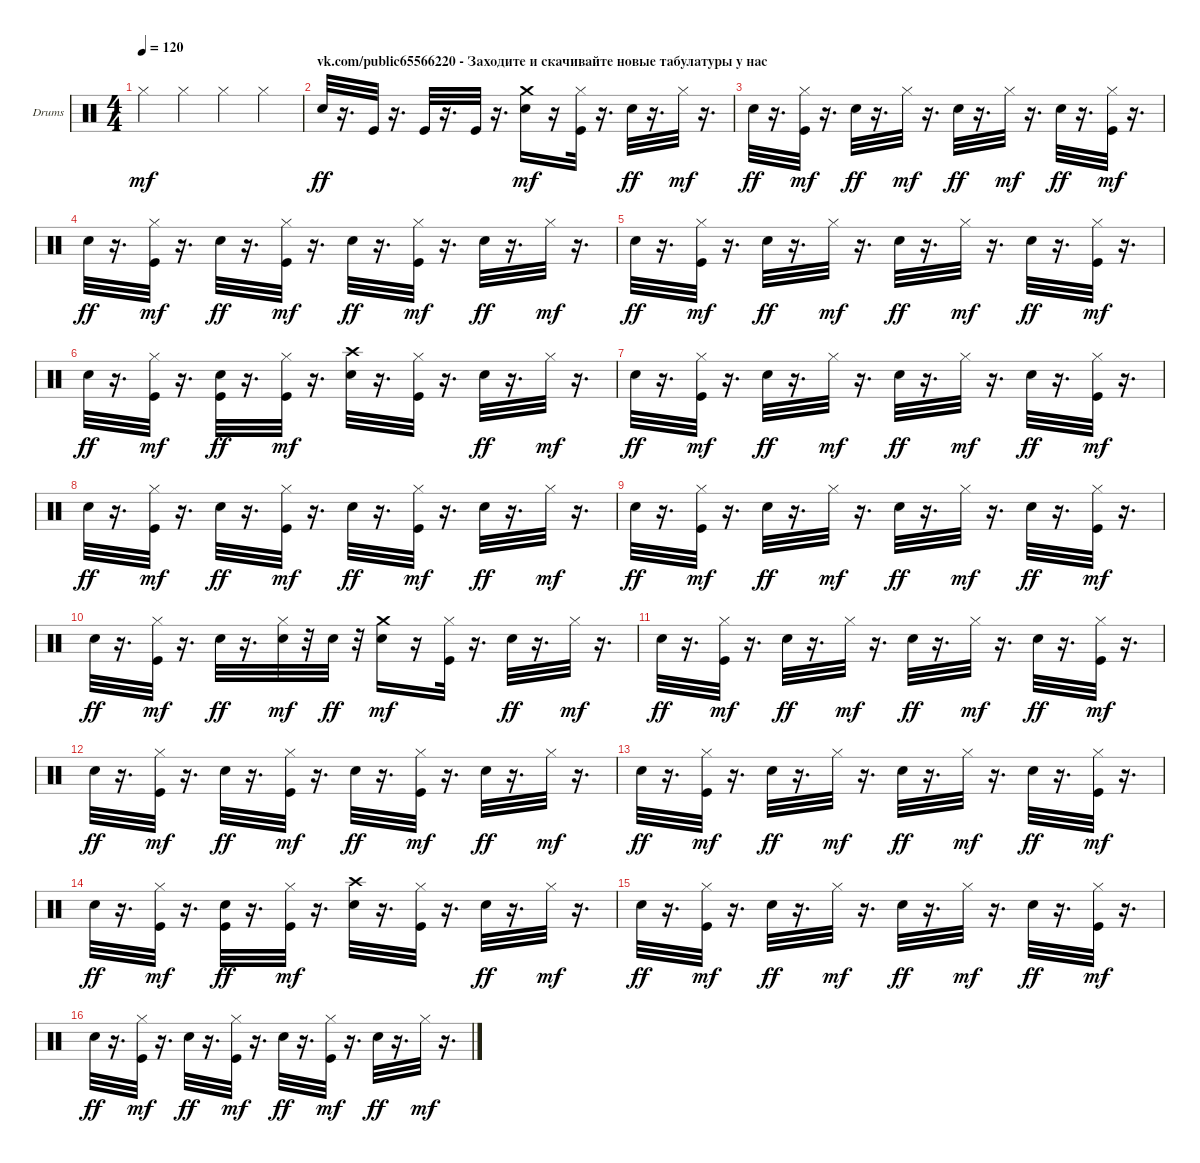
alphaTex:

\bracketExtendMode groupsimilarinstruments
\firstSystemTrackNameOrientation horizontal
\otherSystemsTrackNameOrientation horizontal
\track ("Ударные" "Drums") {instrument percussion}
\staff {score}
\articulation defaults
\ts (4 4)
\tempo 120
\clef neutral
\ks c "Hi-Hat (closed)".4{dy mf} "Hi-Hat (closed)".4 "Hi-Hat (closed)".4 "Hi-Hat (closed)".4
|
\section ("" "vk.com/public65566220 - Заходите и скачивайте новые табулатуры у нас")
"Snare (hit) 2".32{dy ff} r.16{d} "Kick (hit)".32 r.16{d} "Kick (hit)".32 r.16{d} "Kick (hit)".32 r.16{d} ("Crash medium (hit)" "Snare (hit) 2").16{dy mf} r.16 ("Hi-Hat (closed)" "Kick (hit)").32 r.16{d} "Snare (hit) 2".32{dy ff} r.16{d} "Hi-Hat (closed)".32{dy mf} r.16{d} |
"Snare (hit) 2".32{dy ff} r.16{d} ("Hi-Hat (closed)" "Kick (hit)").32{dy mf} r.16{d} "Snare (hit) 2".32{dy ff} r.16{d} "Hi-Hat (closed)".32{dy mf} r.16{d} "Snare (hit) 2".32{dy ff} r.16{d} "Hi-Hat (closed)".32{dy mf} r.16{d} "Snare (hit) 2".32{dy ff} r.16{d} ("Hi-Hat (closed)" "Kick (hit)").32{dy mf} r.16{d} |
"Snare (hit) 2".32{dy ff} r.16{d} ("Hi-Hat (closed)" "Kick (hit)").32{dy mf} r.16{d} "Snare (hit) 2".32{dy ff} r.16{d} ("Hi-Hat (closed)" "Kick (hit)").32{dy mf} r.16{d} "Snare (hit) 2".32{dy ff} r.16{d} ("Hi-Hat (closed)" "Kick (hit)").32{dy mf} r.16{d} "Snare (hit) 2".32{dy ff} r.16{d} "Hi-Hat (closed)".32{dy mf} r.16{d} |
"Snare (hit) 2".32{dy ff} r.16{d} ("Hi-Hat (closed)" "Kick (hit)").32{dy mf} r.16{d} "Snare (hit) 2".32{dy ff} r.16{d} "Hi-Hat (closed)".32{dy mf} r.16{d} "Snare (hit) 2".32{dy ff} r.16{d} "Hi-Hat (closed)".32{dy mf} r.16{d} "Snare (hit) 2".32{dy ff} r.16{d} ("Hi-Hat (closed)" "Kick (hit)").32{dy mf} r.16{d} |
"Snare (hit) 2".32{dy ff} r.16{d} ("Hi-Hat (closed)" "Kick (hit)").32{dy mf} r.16{d} ("Kick (hit)" "Snare (hit) 2").32{dy ff} r.16{d} ("Hi-Hat (closed)" "Kick (hit)").32{dy mf} r.16{d} ("Crash high (hit)" "Snare (hit) 2").32 r.16{d} ("Hi-Hat (closed)" "Kick (hit)").32 r.16{d} "Snare (hit) 2".32{dy ff} r.16{d} "Hi-Hat (closed)".32{dy mf} r.16{d} |
"Snare (hit) 2".32{dy ff} r.16{d} ("Hi-Hat (closed)" "Kick (hit)").32{dy mf} r.16{d} "Snare (hit) 2".32{dy ff} r.16{d} "Hi-Hat (closed)".32{dy mf} r.16{d} "Snare (hit) 2".32{dy ff} r.16{d} "Hi-Hat (closed)".32{dy mf} r.16{d} "Snare (hit) 2".32{dy ff} r.16{d} ("Hi-Hat (closed)" "Kick (hit)").32{dy mf} r.16{d} |
"Snare (hit) 2".32{dy ff} r.16{d} ("Hi-Hat (closed)" "Kick (hit)").32{dy mf} r.16{d} "Snare (hit) 2".32{dy ff} r.16{d} ("Hi-Hat (closed)" "Kick (hit)").32{dy mf} r.16{d} "Snare (hit) 2".32{dy ff} r.16{d} ("Hi-Hat (closed)" "Kick (hit)").32{dy mf} r.16{d} "Snare (hit) 2".32{dy ff} r.16{d} "Hi-Hat (closed)".32{dy mf} r.16{d} |
"Snare (hit) 2".32{dy ff} r.16{d} ("Hi-Hat (closed)" "Kick (hit)").32{dy mf} r.16{d} "Snare (hit) 2".32{dy ff} r.16{d} "Hi-Hat (closed)".32{dy mf} r.16{d} "Snare (hit) 2".32{dy ff} r.16{d} "Hi-Hat (closed)".32{dy mf} r.16{d} "Snare (hit) 2".32{dy ff} r.16{d} ("Hi-Hat (closed)" "Kick (hit)").32{dy mf} r.16{d} |
"Snare (hit) 2".32{dy ff} r.16{d} ("Hi-Hat (closed)" "Kick (hit)").32{dy mf} r.16{d} "Snare (hit) 2".32{dy ff} r.16{d} ("Hi-Hat (closed)" "Snare (hit) 2").32{dy mf} r.32 "Snare (hit) 2".32{dy ff} r.32 ("Crash medium (hit)" "Snare (hit) 2").16{dy mf} r.16 ("Hi-Hat (closed)" "Kick (hit)").32 r.16{d} "Snare (hit) 2".32{dy ff} r.16{d} "Hi-Hat (closed)".32{dy mf} r.16{d} |
"Snare (hit) 2".32{dy ff} r.16{d} ("Hi-Hat (closed)" "Kick (hit)").32{dy mf} r.16{d} "Snare (hit) 2".32{dy ff} r.16{d} "Hi-Hat (closed)".32{dy mf} r.16{d} "Snare (hit) 2".32{dy ff} r.16{d} "Hi-Hat (closed)".32{dy mf} r.16{d} "Snare (hit) 2".32{dy ff} r.16{d} ("Hi-Hat (closed)" "Kick (hit)").32{dy mf} r.16{d} |
"Snare (hit) 2".32{dy ff} r.16{d} ("Hi-Hat (closed)" "Kick (hit)").32{dy mf} r.16{d} "Snare (hit) 2".32{dy ff} r.16{d} ("Hi-Hat (closed)" "Kick (hit)").32{dy mf} r.16{d} "Snare (hit) 2".32{dy ff} r.16{d} ("Hi-Hat (closed)" "Kick (hit)").32{dy mf} r.16{d} "Snare (hit) 2".32{dy ff} r.16{d} "Hi-Hat (closed)".32{dy mf} r.16{d} |
"Snare (hit) 2".32{dy ff} r.16{d} ("Hi-Hat (closed)" "Kick (hit)").32{dy mf} r.16{d} "Snare (hit) 2".32{dy ff} r.16{d} "Hi-Hat (closed)".32{dy mf} r.16{d} "Snare (hit) 2".32{dy ff} r.16{d} "Hi-Hat (closed)".32{dy mf} r.16{d} "Snare (hit) 2".32{dy ff} r.16{d} ("Hi-Hat (closed)" "Kick (hit)").32{dy mf} r.16{d} |
"Snare (hit) 2".32{dy ff} r.16{d} ("Hi-Hat (closed)" "Kick (hit)").32{dy mf} r.16{d} ("Kick (hit)" "Snare (hit) 2").32{dy ff} r.16{d} ("Hi-Hat (closed)" "Kick (hit)").32{dy mf} r.16{d} ("Crash high (hit)" "Snare (hit) 2").32 r.16{d} ("Hi-Hat (closed)" "Kick (hit)").32 r.16{d} "Snare (hit) 2".32{dy ff} r.16{d} "Hi-Hat (closed)".32{dy mf} r.16{d} |
"Snare (hit) 2".32{dy ff} r.16{d} ("Hi-Hat (closed)" "Kick (hit)").32{dy mf} r.16{d} "Snare (hit) 2".32{dy ff} r.16{d} "Hi-Hat (closed)".32{dy mf} r.16{d} "Snare (hit) 2".32{dy ff} r.16{d} "Hi-Hat (closed)".32{dy mf} r.16{d} "Snare (hit) 2".32{dy ff} r.16{d} ("Hi-Hat (closed)" "Kick (hit)").32{dy mf} r.16{d} |
"Snare (hit) 2".32{dy ff} r.16{d} ("Hi-Hat (closed)" "Kick (hit)").32{dy mf} r.16{d} "Snare (hit) 2".32{dy ff} r.16{d} ("Hi-Hat (closed)" "Kick (hit)").32{dy mf} r.16{d} "Snare (hit) 2".32{dy ff} r.16{d} ("Hi-Hat (closed)" "Kick (hit)").32{dy mf} r.16{d} "Snare (hit) 2".32{dy ff} r.16{d} "Hi-Hat (closed)".32{dy mf} r.16{d}
